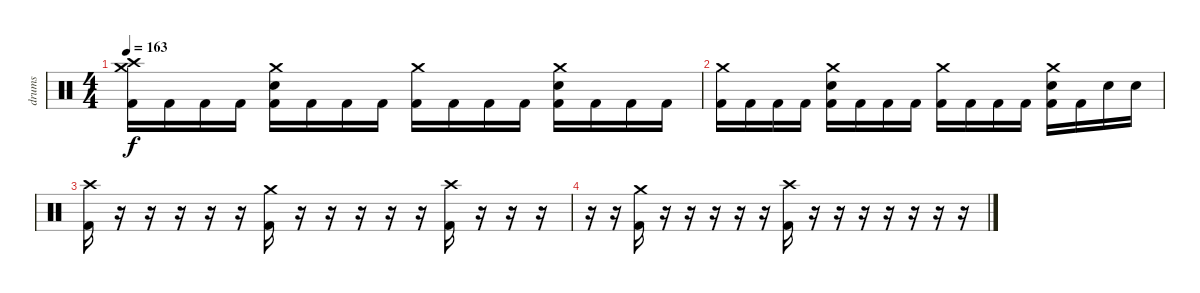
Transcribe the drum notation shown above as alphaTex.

\track ("drums" "drums") {instrument percussion}
\staff {score}
\articulation defaults
\ts (4 4)
\tempo 163
\clef neutral
\ks c
("Crash medium (hit)" "Crash high (hit)" "Kick (hit) 2").16{dy f} "Kick (hit) 2".16 "Kick (hit) 2".16 "Kick (hit) 2".16 ("Crash medium (hit)" "Electric Snare (hit)" "Kick (hit) 2").16 "Kick (hit) 2".16 "Kick (hit) 2".16 "Kick (hit) 2".16 ("Crash medium (hit)" "Kick (hit) 2").16 "Kick (hit) 2".16 "Kick (hit) 2".16 "Kick (hit) 2".16 ("Crash medium (hit)" "Electric Snare (hit)" "Kick (hit) 2").16 "Kick (hit) 2".16 "Kick (hit) 2".16 "Kick (hit) 2".16 |
("Crash medium (hit)" "Kick (hit) 2").16 "Kick (hit) 2".16 "Kick (hit) 2".16 "Kick (hit) 2".16 ("Crash medium (hit)" "Electric Snare (hit)" "Kick (hit) 2").16 "Kick (hit) 2".16 "Kick (hit) 2".16 "Kick (hit) 2".16 ("Crash medium (hit)" "Kick (hit) 2").16 "Kick (hit) 2".16 "Kick (hit) 2".16 "Kick (hit) 2".16 ("Crash medium (hit)" "Electric Snare (hit)" "Kick (hit) 2").16 "Kick (hit) 2".16 "Electric Snare (hit)".16 "Electric Snare (hit)".16 |
("Crash high (hit)" "Kick (hit) 2").16 r.16 r.16 r.16 r.16 r.16 ("Crash medium (hit)" "Kick (hit) 2").16 r.16 r.16 r.16 r.16 r.16 ("Crash high (hit)" "Kick (hit) 2").16 r.16 r.16 r.16 |
r.16 r.16 ("Crash medium (hit)" "Kick (hit) 2").16 r.16 r.16 r.16 r.16 r.16 ("Crash high (hit)" "Kick (hit) 2").16 r.16 r.16 r.16 r.16 r.16 r.16 r.16
